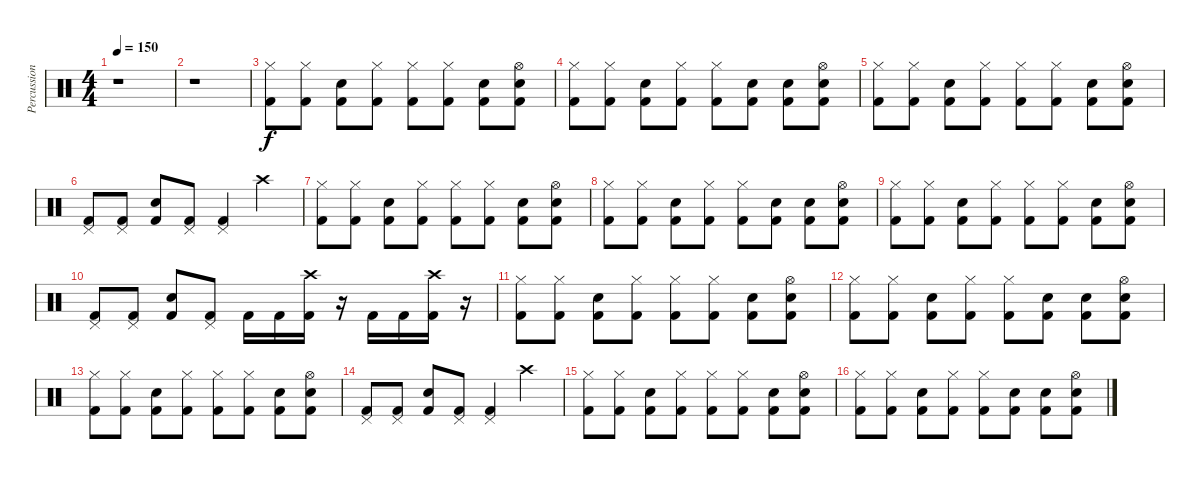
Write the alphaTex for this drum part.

\track ("Percussion" "Percussion") {instrument percussion}
\staff {score}
\articulation defaults
\ts (4 4)
\tempo 150
\clef neutral
\ks c
r.1{dy f} |
r.1 |
("Hi-Hat (closed)" "Kick (hit) 2").8 ("Hi-Hat (closed)" "Kick (hit) 2").8 ("Snare (hit) 2" "Kick (hit) 2").8 ("Hi-Hat (closed)" "Kick (hit) 2").8 ("Hi-Hat (closed)" "Kick (hit) 2").8 ("Hi-Hat (closed)" "Kick (hit) 2").8 ("Snare (hit) 2" "Kick (hit) 2").8 ("Hi-Hat (open)" "Snare (hit) 2" "Kick (hit) 2").8 |
("Hi-Hat (closed)" "Kick (hit) 2").8 ("Hi-Hat (closed)" "Kick (hit) 2").8 ("Snare (hit) 2" "Kick (hit) 2").8 ("Hi-Hat (closed)" "Kick (hit) 2").8 ("Hi-Hat (closed)" "Kick (hit) 2").8 ("Snare (hit) 2" "Kick (hit) 2").8 ("Snare (hit) 2" "Kick (hit) 2").8 ("Hi-Hat (open)" "Snare (hit) 2" "Kick (hit) 2").8 |
("Hi-Hat (closed)" "Kick (hit) 2").8 ("Hi-Hat (closed)" "Kick (hit) 2").8 ("Snare (hit) 2" "Kick (hit) 2").8 ("Hi-Hat (closed)" "Kick (hit) 2").8 ("Hi-Hat (closed)" "Kick (hit) 2").8 ("Hi-Hat (closed)" "Kick (hit) 2").8 ("Snare (hit) 2" "Kick (hit) 2").8 ("Hi-Hat (open)" "Snare (hit) 2" "Kick (hit) 2").8 |
("Pedal Hi-Hat (hit)" "Kick (hit) 2").8 ("Pedal Hi-Hat (hit)" "Kick (hit) 2").8 ("Snare (hit) 2" "Kick (hit) 2").8 ("Pedal Hi-Hat (hit)" "Kick (hit) 2").8 ("Pedal Hi-Hat (hit)" "Kick (hit) 2").4 "Crash high (hit)".4 |
("Hi-Hat (closed)" "Kick (hit) 2").8 ("Hi-Hat (closed)" "Kick (hit) 2").8 ("Snare (hit) 2" "Kick (hit) 2").8 ("Hi-Hat (closed)" "Kick (hit) 2").8 ("Hi-Hat (closed)" "Kick (hit) 2").8 ("Hi-Hat (closed)" "Kick (hit) 2").8 ("Snare (hit) 2" "Kick (hit) 2").8 ("Hi-Hat (open)" "Snare (hit) 2" "Kick (hit) 2").8 |
("Hi-Hat (closed)" "Kick (hit) 2").8 ("Hi-Hat (closed)" "Kick (hit) 2").8 ("Snare (hit) 2" "Kick (hit) 2").8 ("Hi-Hat (closed)" "Kick (hit) 2").8 ("Hi-Hat (closed)" "Kick (hit) 2").8 ("Snare (hit) 2" "Kick (hit) 2").8 ("Snare (hit) 2" "Kick (hit) 2").8 ("Hi-Hat (open)" "Snare (hit) 2" "Kick (hit) 2").8 |
("Hi-Hat (closed)" "Kick (hit) 2").8 ("Hi-Hat (closed)" "Kick (hit) 2").8 ("Snare (hit) 2" "Kick (hit) 2").8 ("Hi-Hat (closed)" "Kick (hit) 2").8 ("Hi-Hat (closed)" "Kick (hit) 2").8 ("Hi-Hat (closed)" "Kick (hit) 2").8 ("Snare (hit) 2" "Kick (hit) 2").8 ("Hi-Hat (open)" "Snare (hit) 2" "Kick (hit) 2").8 |
("Pedal Hi-Hat (hit)" "Kick (hit) 2").8 ("Pedal Hi-Hat (hit)" "Kick (hit) 2").8 ("Snare (hit) 2" "Kick (hit) 2").8 ("Pedal Hi-Hat (hit)" "Kick (hit) 2").8 "Kick (hit) 2".16 "Kick (hit) 2".16 ("Crash high (hit)" "Kick (hit) 2").16 r.16 "Kick (hit) 2".16 "Kick (hit) 2".16 ("Crash high (hit)" "Kick (hit) 2").16 r.16 |
("Hi-Hat (closed)" "Kick (hit) 2").8 ("Hi-Hat (closed)" "Kick (hit) 2").8 ("Snare (hit) 2" "Kick (hit) 2").8 ("Hi-Hat (closed)" "Kick (hit) 2").8 ("Hi-Hat (closed)" "Kick (hit) 2").8 ("Hi-Hat (closed)" "Kick (hit) 2").8 ("Snare (hit) 2" "Kick (hit) 2").8 ("Hi-Hat (open)" "Snare (hit) 2" "Kick (hit) 2").8 |
("Hi-Hat (closed)" "Kick (hit) 2").8 ("Hi-Hat (closed)" "Kick (hit) 2").8 ("Snare (hit) 2" "Kick (hit) 2").8 ("Hi-Hat (closed)" "Kick (hit) 2").8 ("Hi-Hat (closed)" "Kick (hit) 2").8 ("Snare (hit) 2" "Kick (hit) 2").8 ("Snare (hit) 2" "Kick (hit) 2").8 ("Hi-Hat (open)" "Snare (hit) 2" "Kick (hit) 2").8 |
("Hi-Hat (closed)" "Kick (hit) 2").8 ("Hi-Hat (closed)" "Kick (hit) 2").8 ("Snare (hit) 2" "Kick (hit) 2").8 ("Hi-Hat (closed)" "Kick (hit) 2").8 ("Hi-Hat (closed)" "Kick (hit) 2").8 ("Hi-Hat (closed)" "Kick (hit) 2").8 ("Snare (hit) 2" "Kick (hit) 2").8 ("Hi-Hat (open)" "Snare (hit) 2" "Kick (hit) 2").8 |
("Pedal Hi-Hat (hit)" "Kick (hit) 2").8 ("Pedal Hi-Hat (hit)" "Kick (hit) 2").8 ("Snare (hit) 2" "Kick (hit) 2").8 ("Pedal Hi-Hat (hit)" "Kick (hit) 2").8 ("Pedal Hi-Hat (hit)" "Kick (hit) 2").4 "Crash high (hit)".4 |
("Hi-Hat (closed)" "Kick (hit) 2").8 ("Hi-Hat (closed)" "Kick (hit) 2").8 ("Snare (hit) 2" "Kick (hit) 2").8 ("Hi-Hat (closed)" "Kick (hit) 2").8 ("Hi-Hat (closed)" "Kick (hit) 2").8 ("Hi-Hat (closed)" "Kick (hit) 2").8 ("Snare (hit) 2" "Kick (hit) 2").8 ("Hi-Hat (open)" "Snare (hit) 2" "Kick (hit) 2").8 |
("Hi-Hat (closed)" "Kick (hit) 2").8 ("Hi-Hat (closed)" "Kick (hit) 2").8 ("Snare (hit) 2" "Kick (hit) 2").8 ("Hi-Hat (closed)" "Kick (hit) 2").8 ("Hi-Hat (closed)" "Kick (hit) 2").8 ("Snare (hit) 2" "Kick (hit) 2").8 ("Snare (hit) 2" "Kick (hit) 2").8 ("Hi-Hat (open)" "Snare (hit) 2" "Kick (hit) 2").8
